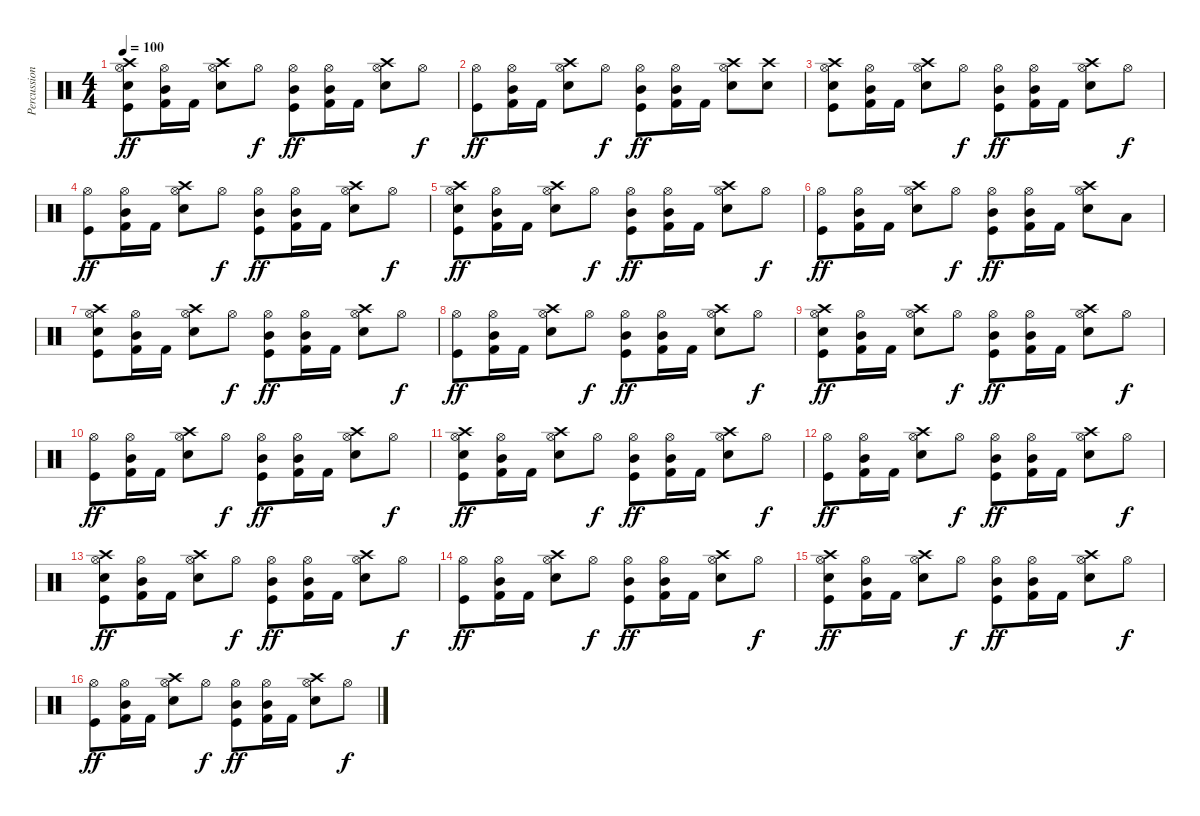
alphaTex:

\track ("Percussion" "Percussion") {instrument percussion}
\staff {score}
\articulation defaults
\ts (4 4)
\tempo 100
\clef neutral
\ks c
("Hi-Hat (open)" "Crash high (hit)" "Snare (hit) 2" "Kick (hit)").8{dy ff} ("Hi-Hat (open)" "Mid Tom (hit)" "Kick (hit) 2").16 "Kick (hit) 2".16 ("Hi-Hat (open)" "Crash high (hit)" "Snare (hit) 2").8 "Hi-Hat (open)".8{dy f} ("Hi-Hat (open)" "Mid Tom (hit)" "Kick (hit)").8{dy ff} ("Hi-Hat (open)" "Mid Tom (hit)" "Kick (hit) 2").16 "Kick (hit) 2".16 ("Hi-Hat (open)" "Crash high (hit)" "Snare (hit) 2").8 "Hi-Hat (open)".8{dy f} |
("Hi-Hat (open)" "Kick (hit)").8{dy ff} ("Hi-Hat (open)" "Mid Tom (hit)" "Kick (hit) 2").16 "Kick (hit) 2".16 ("Hi-Hat (open)" "Crash high (hit)" "Snare (hit) 2").8 "Hi-Hat (open)".8{dy f} ("Hi-Hat (open)" "Mid Tom (hit)" "Kick (hit)").8{dy ff} ("Hi-Hat (open)" "Mid Tom (hit)" "Kick (hit) 2").16 "Kick (hit) 2".16 ("Hi-Hat (open)" "Crash high (hit)" "Snare (hit) 2").8 ("Crash high (hit)" "Snare (hit) 2").8 |
("Hi-Hat (open)" "Crash high (hit)" "Snare (hit) 2" "Kick (hit)").8 ("Hi-Hat (open)" "Mid Tom (hit)" "Kick (hit) 2").16 "Kick (hit) 2".16 ("Hi-Hat (open)" "Crash high (hit)" "Snare (hit) 2").8 "Hi-Hat (open)".8{dy f} ("Hi-Hat (open)" "Mid Tom (hit)" "Kick (hit)").8{dy ff} ("Hi-Hat (open)" "Mid Tom (hit)" "Kick (hit) 2").16 "Kick (hit) 2".16 ("Hi-Hat (open)" "Crash high (hit)" "Snare (hit) 2").8 "Hi-Hat (open)".8{dy f} |
("Hi-Hat (open)" "Kick (hit)").8{dy ff} ("Hi-Hat (open)" "Mid Tom (hit)" "Kick (hit) 2").16 "Kick (hit) 2".16 ("Hi-Hat (open)" "Crash high (hit)" "Snare (hit) 2").8 "Hi-Hat (open)".8{dy f} ("Hi-Hat (open)" "Mid Tom (hit)" "Kick (hit)").8{dy ff} ("Hi-Hat (open)" "Mid Tom (hit)" "Kick (hit) 2").16 "Kick (hit) 2".16 ("Hi-Hat (open)" "Crash high (hit)" "Snare (hit) 2").8 "Hi-Hat (open)".8{dy f} |
("Hi-Hat (open)" "Crash high (hit)" "Snare (hit) 2" "Kick (hit)").8{dy ff} ("Hi-Hat (open)" "Mid Tom (hit)" "Kick (hit) 2").16 "Kick (hit) 2".16 ("Hi-Hat (open)" "Crash high (hit)" "Snare (hit) 2").8 "Hi-Hat (open)".8{dy f} ("Hi-Hat (open)" "Mid Tom (hit)" "Kick (hit)").8{dy ff} ("Hi-Hat (open)" "Mid Tom (hit)" "Kick (hit) 2").16 "Kick (hit) 2".16 ("Hi-Hat (open)" "Crash high (hit)" "Snare (hit) 2").8 "Hi-Hat (open)".8{dy f} |
("Hi-Hat (open)" "Kick (hit)").8{dy ff} ("Hi-Hat (open)" "Mid Tom (hit)" "Kick (hit) 2").16 "Kick (hit) 2".16 ("Hi-Hat (open)" "Crash high (hit)" "Snare (hit) 2").8 "Hi-Hat (open)".8{dy f} ("Hi-Hat (open)" "Mid Tom (hit)" "Kick (hit)").8{dy ff} ("Hi-Hat (open)" "Mid Tom (hit)" "Kick (hit) 2").16 "Kick (hit) 2".16 ("Hi-Hat (open)" "Crash high (hit)" "Snare (hit) 2").8 "Low Tom (hit)".8 |
("Hi-Hat (open)" "Crash high (hit)" "Snare (hit) 2" "Kick (hit)").8 ("Hi-Hat (open)" "Mid Tom (hit)" "Kick (hit) 2").16 "Kick (hit) 2".16 ("Hi-Hat (open)" "Crash high (hit)" "Snare (hit) 2").8 "Hi-Hat (open)".8{dy f} ("Hi-Hat (open)" "Mid Tom (hit)" "Kick (hit)").8{dy ff} ("Hi-Hat (open)" "Mid Tom (hit)" "Kick (hit) 2").16 "Kick (hit) 2".16 ("Hi-Hat (open)" "Crash high (hit)" "Snare (hit) 2").8 "Hi-Hat (open)".8{dy f} |
("Hi-Hat (open)" "Kick (hit)").8{dy ff} ("Hi-Hat (open)" "Mid Tom (hit)" "Kick (hit) 2").16 "Kick (hit) 2".16 ("Hi-Hat (open)" "Crash high (hit)" "Snare (hit) 2").8 "Hi-Hat (open)".8{dy f} ("Hi-Hat (open)" "Mid Tom (hit)" "Kick (hit)").8{dy ff} ("Hi-Hat (open)" "Mid Tom (hit)" "Kick (hit) 2").16 "Kick (hit) 2".16 ("Hi-Hat (open)" "Crash high (hit)" "Snare (hit) 2").8 "Hi-Hat (open)".8{dy f} |
("Hi-Hat (open)" "Crash high (hit)" "Snare (hit) 2" "Kick (hit)").8{dy ff} ("Hi-Hat (open)" "Mid Tom (hit)" "Kick (hit) 2").16 "Kick (hit) 2".16 ("Hi-Hat (open)" "Crash high (hit)" "Snare (hit) 2").8 "Hi-Hat (open)".8{dy f} ("Hi-Hat (open)" "Mid Tom (hit)" "Kick (hit)").8{dy ff} ("Hi-Hat (open)" "Mid Tom (hit)" "Kick (hit) 2").16 "Kick (hit) 2".16 ("Hi-Hat (open)" "Crash high (hit)" "Snare (hit) 2").8 "Hi-Hat (open)".8{dy f} |
("Hi-Hat (open)" "Kick (hit)").8{dy ff} ("Hi-Hat (open)" "Mid Tom (hit)" "Kick (hit) 2").16 "Kick (hit) 2".16 ("Hi-Hat (open)" "Crash high (hit)" "Snare (hit) 2").8 "Hi-Hat (open)".8{dy f} ("Hi-Hat (open)" "Mid Tom (hit)" "Kick (hit)").8{dy ff} ("Hi-Hat (open)" "Mid Tom (hit)" "Kick (hit) 2").16 "Kick (hit) 2".16 ("Hi-Hat (open)" "Crash high (hit)" "Snare (hit) 2").8 "Hi-Hat (open)".8{dy f} |
("Hi-Hat (open)" "Crash high (hit)" "Snare (hit) 2" "Kick (hit)").8{dy ff} ("Hi-Hat (open)" "Mid Tom (hit)" "Kick (hit) 2").16 "Kick (hit) 2".16 ("Hi-Hat (open)" "Crash high (hit)" "Snare (hit) 2").8 "Hi-Hat (open)".8{dy f} ("Hi-Hat (open)" "Mid Tom (hit)" "Kick (hit)").8{dy ff} ("Hi-Hat (open)" "Mid Tom (hit)" "Kick (hit) 2").16 "Kick (hit) 2".16 ("Hi-Hat (open)" "Crash high (hit)" "Snare (hit) 2").8 "Hi-Hat (open)".8{dy f} |
("Hi-Hat (open)" "Kick (hit)").8{dy ff} ("Hi-Hat (open)" "Mid Tom (hit)" "Kick (hit) 2").16 "Kick (hit) 2".16 ("Hi-Hat (open)" "Crash high (hit)" "Snare (hit) 2").8 "Hi-Hat (open)".8{dy f} ("Hi-Hat (open)" "Mid Tom (hit)" "Kick (hit)").8{dy ff} ("Hi-Hat (open)" "Mid Tom (hit)" "Kick (hit) 2").16 "Kick (hit) 2".16 ("Hi-Hat (open)" "Crash high (hit)" "Snare (hit) 2").8 "Hi-Hat (open)".8{dy f} |
("Hi-Hat (open)" "Crash high (hit)" "Snare (hit) 2" "Kick (hit)").8{dy ff} ("Hi-Hat (open)" "Mid Tom (hit)" "Kick (hit) 2").16 "Kick (hit) 2".16 ("Hi-Hat (open)" "Crash high (hit)" "Snare (hit) 2").8 "Hi-Hat (open)".8{dy f} ("Hi-Hat (open)" "Mid Tom (hit)" "Kick (hit)").8{dy ff} ("Hi-Hat (open)" "Mid Tom (hit)" "Kick (hit) 2").16 "Kick (hit) 2".16 ("Hi-Hat (open)" "Crash high (hit)" "Snare (hit) 2").8 "Hi-Hat (open)".8{dy f} |
("Hi-Hat (open)" "Kick (hit)").8{dy ff} ("Hi-Hat (open)" "Mid Tom (hit)" "Kick (hit) 2").16 "Kick (hit) 2".16 ("Hi-Hat (open)" "Crash high (hit)" "Snare (hit) 2").8 "Hi-Hat (open)".8{dy f} ("Hi-Hat (open)" "Mid Tom (hit)" "Kick (hit)").8{dy ff} ("Hi-Hat (open)" "Mid Tom (hit)" "Kick (hit) 2").16 "Kick (hit) 2".16 ("Hi-Hat (open)" "Crash high (hit)" "Snare (hit) 2").8 "Hi-Hat (open)".8{dy f} |
("Hi-Hat (open)" "Crash high (hit)" "Snare (hit) 2" "Kick (hit)").8{dy ff} ("Hi-Hat (open)" "Mid Tom (hit)" "Kick (hit) 2").16 "Kick (hit) 2".16 ("Hi-Hat (open)" "Crash high (hit)" "Snare (hit) 2").8 "Hi-Hat (open)".8{dy f} ("Hi-Hat (open)" "Mid Tom (hit)" "Kick (hit)").8{dy ff} ("Hi-Hat (open)" "Mid Tom (hit)" "Kick (hit) 2").16 "Kick (hit) 2".16 ("Hi-Hat (open)" "Crash high (hit)" "Snare (hit) 2").8 "Hi-Hat (open)".8{dy f} |
("Hi-Hat (open)" "Kick (hit)").8{dy ff} ("Hi-Hat (open)" "Mid Tom (hit)" "Kick (hit) 2").16 "Kick (hit) 2".16 ("Hi-Hat (open)" "Crash high (hit)" "Snare (hit) 2").8 "Hi-Hat (open)".8{dy f} ("Hi-Hat (open)" "Mid Tom (hit)" "Kick (hit)").8{dy ff} ("Hi-Hat (open)" "Mid Tom (hit)" "Kick (hit) 2").16 "Kick (hit) 2".16 ("Hi-Hat (open)" "Crash high (hit)" "Snare (hit) 2").8 "Hi-Hat (open)".8{dy f}
